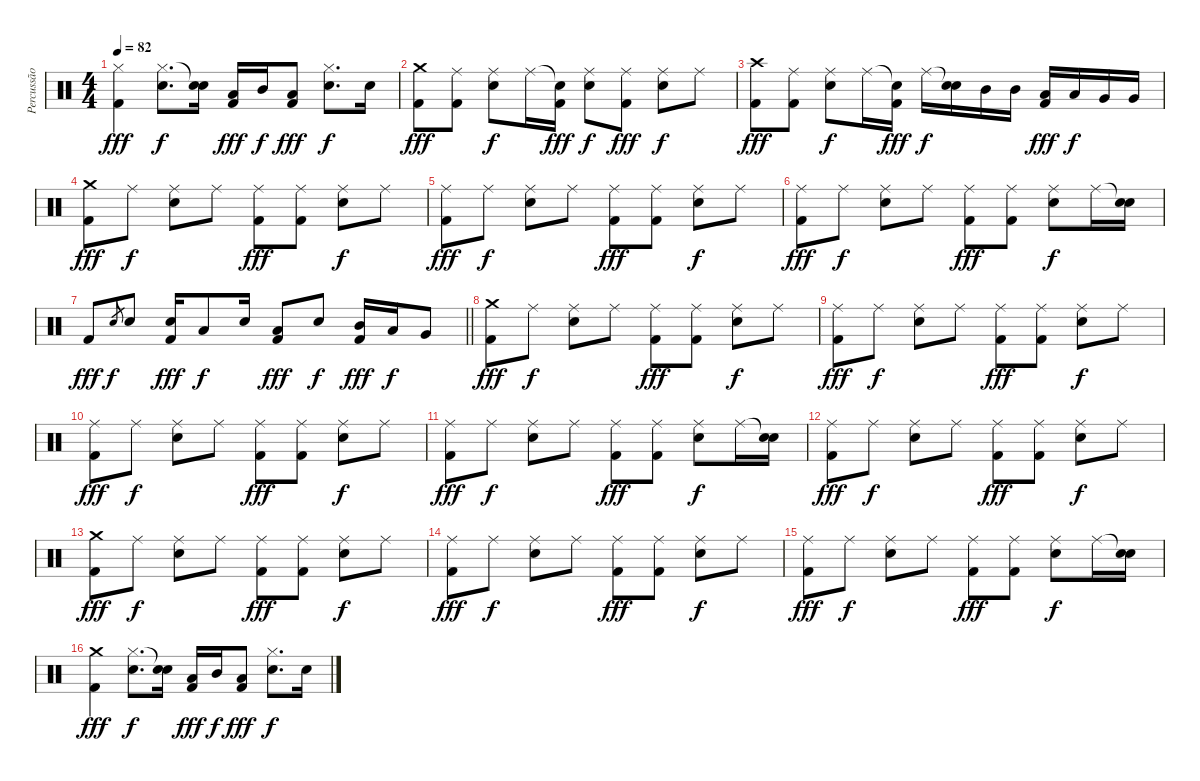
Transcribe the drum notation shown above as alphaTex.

\track ("Percussão" "Percussão") {instrument percussion}
\staff {score}
\articulation defaults
\ts (4 4)
\tempo 82
\clef neutral
\ks c
("Hi-Hat (closed)" "Kick (hit) 2").4{dy fff} ("Hi-Hat (closed)" "Snare (hit) 2").8{d dy f} ("Snare (hit)"{t} "Snare (hit) 2").16 ("Low Tom (hit)" "Kick (hit) 2").16{dy fff} "Mid Tom (hit)".16{dy f} ("Low Tom (hit)" "Kick (hit) 2").8{dy fff} ("Hi-Hat (closed)" "Snare (hit) 2").8{d dy f} "Snare (hit) 2".16 |
("Crash medium (hit)" "Kick (hit) 2").8{dy fff} ("Ride (middle)" "Kick (hit) 2").8 ("Ride (middle)" "Snare (hit) 2").8{dy f} "Ride (middle)".16 ("Snare (hit)"{t} "Kick (hit) 2").16{dy fff} ("Ride (middle)" "Snare (hit) 2").8{dy f} ("Ride (middle)" "Kick (hit) 2").8{dy fff} ("Ride (middle)" "Snare (hit) 2").8{dy f} "Ride (middle)".8 |
("Crash high (hit)" "Kick (hit) 2").8{dy fff} ("Ride (middle)" "Kick (hit) 2").8 ("Ride (middle)" "Snare (hit) 2").8{dy f} "Ride (middle)".16 ("Snare (hit)"{t} "Kick (hit) 2").16{dy fff} "Ride (middle)".16{dy f} ("Snare (hit)"{t} "Snare (hit) 2").16 "Mid Tom (hit)".16 "Mid Tom (hit)".16 ("Low Tom (hit)" "Kick (hit) 2").16{dy fff} "Low Tom (hit)".16{dy f} "Very Low Tom (hit)".16 "Very Low Tom (hit)".16 |
("Crash medium (hit)" "Kick (hit) 2").8{dy fff} "Ride (middle)".8{dy f} ("Ride (middle)" "Snare (hit) 2").8 "Ride (middle)".8 ("Ride (middle)" "Kick (hit) 2").8{dy fff} ("Ride (middle)" "Kick (hit) 2").8 ("Ride (middle)" "Snare (hit) 2").8{dy f} "Ride (middle)".8 |
("Ride (middle)" "Kick (hit) 2").8{dy fff} "Ride (middle)".8{dy f} ("Ride (middle)" "Snare (hit) 2").8 "Ride (middle)".8 ("Ride (middle)" "Kick (hit) 2").8{dy fff} ("Ride (middle)" "Kick (hit) 2").8 ("Ride (middle)" "Snare (hit) 2").8{dy f} "Ride (middle)".8 |
("Ride (middle)" "Kick (hit) 2").8{dy fff} "Ride (middle)".8{dy f} ("Ride (middle)" "Snare (hit) 2").8 "Ride (middle)".8 ("Ride (middle)" "Kick (hit) 2").8{dy fff} ("Ride (middle)" "Kick (hit) 2").8 ("Ride (middle)" "Snare (hit) 2").8{dy f} "Ride (middle)".16 ("Snare (hit)"{t} "Snare (hit) 2").16 |
\barLineRight lightlight "Kick (hit) 2".8{dy fff} "Snare (hit) 2".8{gr dy f} "Snare (hit) 2".8
("Snare (hit) 2" "Kick (hit) 2").16{dy fff} "Low Tom (hit)".8{dy f} "Snare (hit) 2".16 ("Low Tom (hit)" "Kick (hit) 2").8{dy fff} "Snare (hit) 2".8{dy f} ("Mid Tom (hit)" "Kick (hit) 2").16{dy fff} "Low Tom (hit)".16{dy f} "Very Low Tom (hit)".8 |
("Crash medium (hit)" "Kick (hit) 2").8{dy fff} "Ride (middle)".8{dy f} ("Ride (middle)" "Snare (hit) 2").8 "Ride (middle)".8 ("Ride (middle)" "Kick (hit) 2").8{dy fff} ("Ride (middle)" "Kick (hit) 2").8 ("Ride (middle)" "Snare (hit) 2").8{dy f} "Ride (middle)".8 |
("Ride (middle)" "Kick (hit) 2").8{dy fff} "Ride (middle)".8{dy f} ("Ride (middle)" "Snare (hit) 2").8 "Ride (middle)".8 ("Ride (middle)" "Kick (hit) 2").8{dy fff} ("Ride (middle)" "Kick (hit) 2").8 ("Ride (middle)" "Snare (hit) 2").8{dy f} "Ride (middle)".8 |
("Ride (middle)" "Kick (hit) 2").8{dy fff} "Ride (middle)".8{dy f} ("Ride (middle)" "Snare (hit) 2").8 "Ride (middle)".8 ("Ride (middle)" "Kick (hit) 2").8{dy fff} ("Ride (middle)" "Kick (hit) 2").8 ("Ride (middle)" "Snare (hit) 2").8{dy f} "Ride (middle)".8 |
("Ride (middle)" "Kick (hit) 2").8{dy fff} "Ride (middle)".8{dy f} ("Ride (middle)" "Snare (hit) 2").8 "Ride (middle)".8 ("Ride (middle)" "Kick (hit) 2").8{dy fff} ("Ride (middle)" "Kick (hit) 2").8 ("Ride (middle)" "Snare (hit) 2").8{dy f} "Ride (middle)".16 ("Snare (hit)"{t} "Snare (hit) 2").16 |
("Ride (middle)" "Kick (hit) 2").8{dy fff} "Ride (middle)".8{dy f} ("Ride (middle)" "Snare (hit) 2").8 "Ride (middle)".8 ("Ride (middle)" "Kick (hit) 2").8{dy fff} ("Ride (middle)" "Kick (hit) 2").8 ("Ride (middle)" "Snare (hit) 2").8{dy f} "Ride (middle)".8 |
("Crash medium (hit)" "Kick (hit) 2").8{dy fff} "Ride (middle)".8{dy f} ("Ride (middle)" "Snare (hit) 2").8 "Ride (middle)".8 ("Ride (middle)" "Kick (hit) 2").8{dy fff} ("Ride (middle)" "Kick (hit) 2").8 ("Ride (middle)" "Snare (hit) 2").8{dy f} "Ride (middle)".8 |
("Ride (middle)" "Kick (hit) 2").8{dy fff} "Ride (middle)".8{dy f} ("Ride (middle)" "Snare (hit) 2").8 "Ride (middle)".8 ("Ride (middle)" "Kick (hit) 2").8{dy fff} ("Ride (middle)" "Kick (hit) 2").8 ("Ride (middle)" "Snare (hit) 2").8{dy f} "Ride (middle)".8 |
("Ride (middle)" "Kick (hit) 2").8{dy fff} "Ride (middle)".8{dy f} ("Ride (middle)" "Snare (hit) 2").8 "Ride (middle)".8 ("Ride (middle)" "Kick (hit) 2").8{dy fff} ("Ride (middle)" "Kick (hit) 2").8 ("Ride (middle)" "Snare (hit) 2").8{dy f} "Ride (middle)".16 ("Snare (hit)"{t} "Snare (hit) 2").16 |
("Crash medium (hit)" "Kick (hit) 2").4{dy fff} ("Hi-Hat (closed)" "Snare (hit) 2").8{d dy f} ("Snare (hit)"{t} "Snare (hit) 2").16 ("Low Tom (hit)" "Kick (hit) 2").16{dy fff} "Mid Tom (hit)".16{dy f} ("Low Tom (hit)" "Kick (hit) 2").8{dy fff} ("Hi-Hat (closed)" "Snare (hit) 2").8{d dy f} "Snare (hit) 2".16
